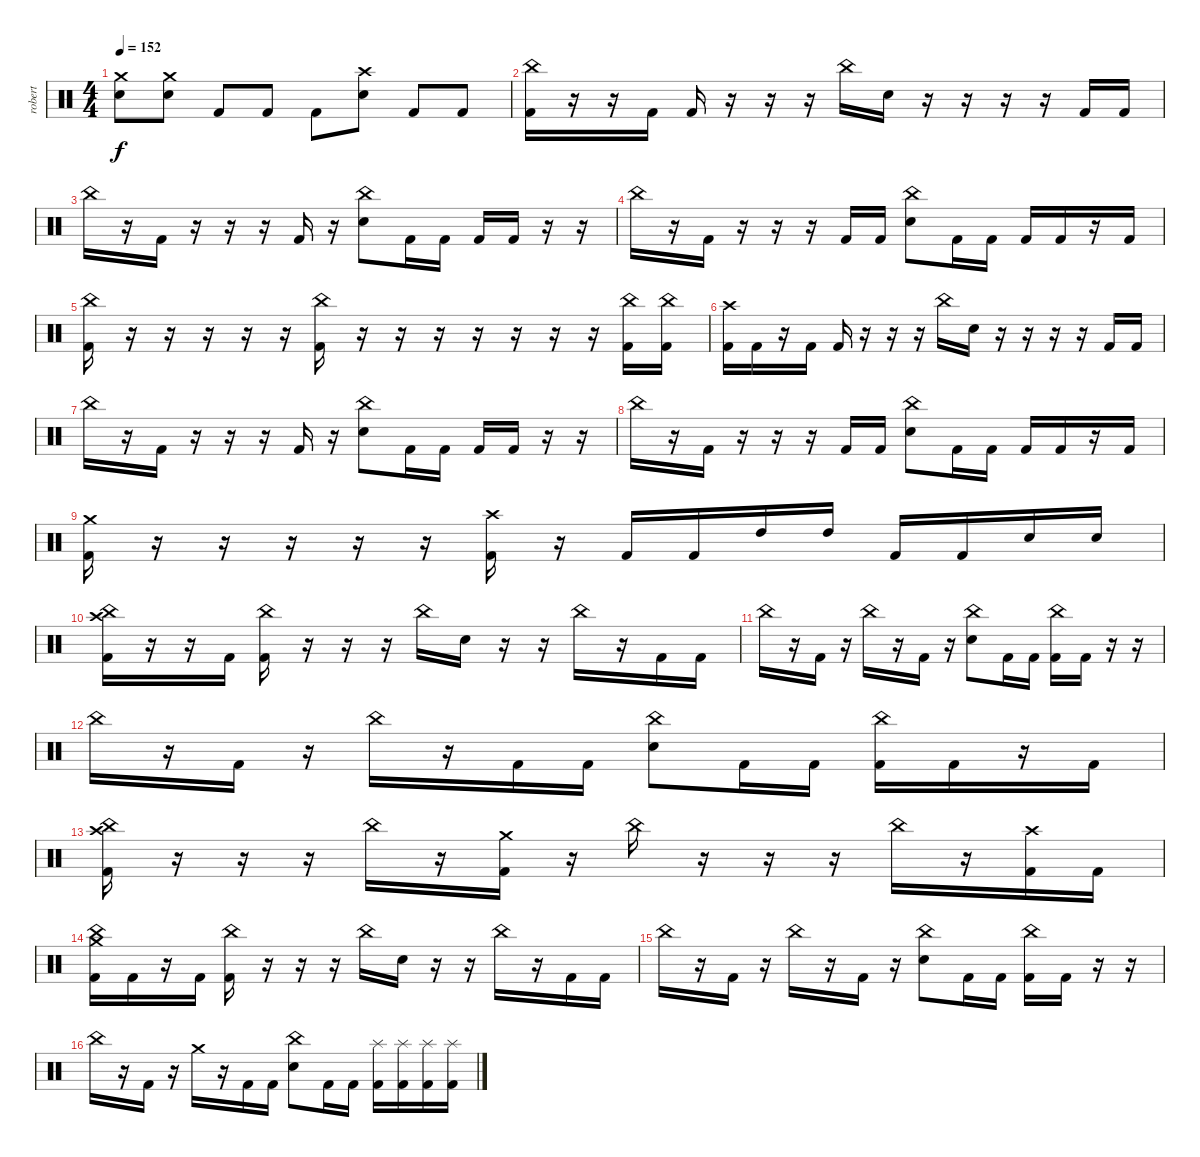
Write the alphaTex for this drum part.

\track ("robert" "robert") {instrument percussion}
\staff {score}
\articulation defaults
\ts (4 4)
\tempo 152
\clef neutral
\ks c
("Crash medium (hit)" "Electric Snare (hit)").8{dy f} ("Crash medium (hit)" "Electric Snare (hit)").8 "Kick (hit) 2".8 "Kick (hit) 2".8 "Kick (hit) 2".8 ("Crash high (hit)" "Electric Snare (hit)").8 "Kick (hit) 2".8 "Kick (hit) 2".8 |
("Kick (hit) 2" "China (hit)").16 r.16 r.16 "Kick (hit) 2".16 "Kick (hit) 2".16 r.16 r.16 r.16 "China (hit)".16 "Electric Snare (hit)".16 r.16 r.16 r.16 r.16 "Kick (hit) 2".16 "Kick (hit) 2".16 |
"China (hit)".16 r.16 "Kick (hit) 2".16 r.16 r.16 r.16 "Kick (hit) 2".16 r.16 ("China (hit)" "Electric Snare (hit)").8 "Kick (hit) 2".16 "Kick (hit) 2".16 "Kick (hit) 2".16 "Kick (hit) 2".16 r.16 r.16 |
"China (hit)".16 r.16 "Kick (hit) 2".16 r.16 r.16 r.16 "Kick (hit) 2".16 "Kick (hit) 2".16 ("China (hit)" "Electric Snare (hit)").8 "Kick (hit) 2".16 "Kick (hit) 2".16 "Kick (hit) 2".16 "Kick (hit) 2".16 r.16 "Kick (hit) 2".16 |
("China (hit)" "Kick (hit) 2").16 r.16 r.16 r.16 r.16 r.16 ("China (hit)" "Kick (hit) 2").16 r.16 r.16 r.16 r.16 r.16 r.16 r.16 ("China (hit)" "Kick (hit) 2").16 ("China (hit)" "Kick (hit) 2").16 |
("Crash high (hit)" "Kick (hit) 2").16 "Kick (hit) 2".16 r.16 "Kick (hit) 2".16 "Kick (hit) 2".16 r.16 r.16 r.16 "China (hit)".16 "Electric Snare (hit)".16 r.16 r.16 r.16 r.16 "Kick (hit) 2".16 "Kick (hit) 2".16 |
"China (hit)".16 r.16 "Kick (hit) 2".16 r.16 r.16 r.16 "Kick (hit) 2".16 r.16 ("China (hit)" "Electric Snare (hit)").8 "Kick (hit) 2".16 "Kick (hit) 2".16 "Kick (hit) 2".16 "Kick (hit) 2".16 r.16 r.16 |
"China (hit)".16 r.16 "Kick (hit) 2".16 r.16 r.16 r.16 "Kick (hit) 2".16 "Kick (hit) 2".16 ("China (hit)" "Electric Snare (hit)").8 "Kick (hit) 2".16 "Kick (hit) 2".16 "Kick (hit) 2".16 "Kick (hit) 2".16 r.16 "Kick (hit) 2".16 |
("Crash medium (hit)" "Kick (hit) 2").16 r.16 r.16 r.16 r.16 r.16 ("Crash high (hit)" "Kick (hit) 2").16 r.16 "Kick (hit) 2".16 "Kick (hit) 2".16 "High Tom (hit)".16 "High Tom (hit)".16 "Kick (hit) 2".16 "Kick (hit) 2".16 "Electric Snare (hit)".16 "Electric Snare (hit)".16 |
("Crash high (hit)" "Kick (hit) 2" "China (hit)").16 r.16 r.16 "Kick (hit) 2".16 ("China (hit)" "Kick (hit) 2").16 r.16 r.16 r.16 "China (hit)".16 "Electric Snare (hit)".16 r.16 r.16 "China (hit)".16 r.16 "Kick (hit) 2".16 "Kick (hit) 2".16 |
"China (hit)".16 r.16 "Kick (hit) 2".16 r.16 "China (hit)".16 r.16 "Kick (hit) 2".16 r.16 ("China (hit)" "Electric Snare (hit)").8 "Kick (hit) 2".16 "Kick (hit) 2".16 ("China (hit)" "Kick (hit) 2").16 "Kick (hit) 2".16 r.16 r.16 |
"China (hit)".16 r.16 "Kick (hit) 2".16 r.16 "China (hit)".16 r.16 "Kick (hit) 2".16 "Kick (hit) 2".16 ("China (hit)" "Electric Snare (hit)").8 "Kick (hit) 2".16 "Kick (hit) 2".16 ("China (hit)" "Kick (hit) 2").16 "Kick (hit) 2".16 r.16 "Kick (hit) 2".16 |
("China (hit)" "Crash high (hit)" "Kick (hit) 2").16 r.16 r.16 r.16 "China (hit)".16 r.16 ("Crash medium (hit)" "Kick (hit) 2").16 r.16 "China (hit)".16 r.16 r.16 r.16 "China (hit)".16 r.16 ("Crash high (hit)" "Kick (hit) 2").16 "Kick (hit) 2".16 |
("China (hit)" "Crash medium (hit)" "Kick (hit) 2").16 "Kick (hit) 2".16 r.16 "Kick (hit) 2".16 ("China (hit)" "Kick (hit) 2").16 r.16 r.16 r.16 "China (hit)".16 "Electric Snare (hit)".16 r.16 r.16 "China (hit)".16 r.16 "Kick (hit) 2".16 "Kick (hit) 2".16 |
"China (hit)".16 r.16 "Kick (hit) 2".16 r.16 "China (hit)".16 r.16 "Kick (hit) 2".16 r.16 ("China (hit)" "Electric Snare (hit)").8 "Kick (hit) 2".16 "Kick (hit) 2".16 ("China (hit)" "Kick (hit) 2").16 "Kick (hit) 2".16 r.16 r.16 |
"China (hit)".16 r.16 "Kick (hit) 2".16 r.16 "Crash medium (hit)".16 r.16 "Kick (hit) 2".16 "Kick (hit) 2".16 ("China (hit)" "Electric Snare (hit)").8 "Kick (hit) 2".16 "Kick (hit) 2".16 ("Splash (hit)" "Kick (hit) 2").16 ("Splash (hit)" "Kick (hit) 2").16 ("Splash (hit)" "Kick (hit) 2").16 ("Splash (hit)" "Kick (hit) 2").16
